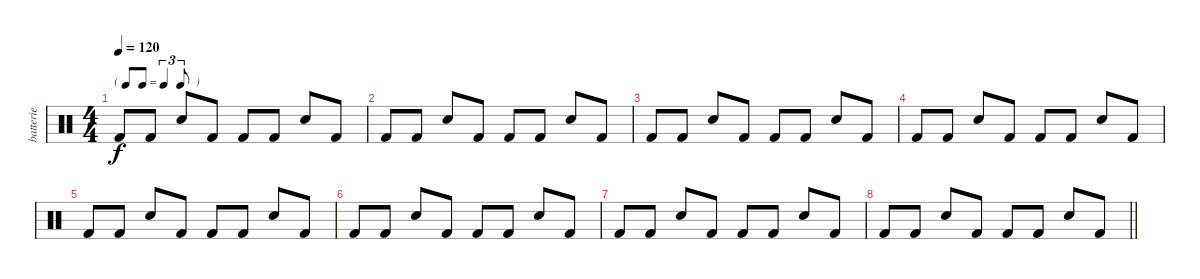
\track ("batterie" "batterie") {instrument percussion}
\staff {score}
\articulation defaults
\ts (4 4)
\tf triplet8th
\tempo 120
\clef neutral
\ks c "Kick (hit) 2".8{dy f} "Kick (hit) 2".8 "Snare (hit) 2".8 "Kick (hit) 2".8 "Kick (hit) 2".8 "Kick (hit) 2".8 "Snare (hit) 2".8 "Kick (hit) 2".8
|
"Kick (hit) 2".8 "Kick (hit) 2".8 "Snare (hit) 2".8 "Kick (hit) 2".8 "Kick (hit) 2".8 "Kick (hit) 2".8 "Snare (hit) 2".8 "Kick (hit) 2".8 |
"Kick (hit) 2".8 "Kick (hit) 2".8 "Snare (hit) 2".8 "Kick (hit) 2".8 "Kick (hit) 2".8 "Kick (hit) 2".8 "Snare (hit) 2".8 "Kick (hit) 2".8 |
"Kick (hit) 2".8 "Kick (hit) 2".8 "Snare (hit) 2".8 "Kick (hit) 2".8 "Kick (hit) 2".8 "Kick (hit) 2".8 "Snare (hit) 2".8 "Kick (hit) 2".8 |
"Kick (hit) 2".8 "Kick (hit) 2".8 "Snare (hit) 2".8 "Kick (hit) 2".8 "Kick (hit) 2".8 "Kick (hit) 2".8 "Snare (hit) 2".8 "Kick (hit) 2".8 |
"Kick (hit) 2".8 "Kick (hit) 2".8 "Snare (hit) 2".8 "Kick (hit) 2".8 "Kick (hit) 2".8 "Kick (hit) 2".8 "Snare (hit) 2".8 "Kick (hit) 2".8 |
"Kick (hit) 2".8 "Kick (hit) 2".8 "Snare (hit) 2".8 "Kick (hit) 2".8 "Kick (hit) 2".8 "Kick (hit) 2".8 "Snare (hit) 2".8 "Kick (hit) 2".8 |
\barLineRight lightlight "Kick (hit) 2".8 "Kick (hit) 2".8 "Snare (hit) 2".8 "Kick (hit) 2".8 "Kick (hit) 2".8 "Kick (hit) 2".8 "Snare (hit) 2".8 "Kick (hit) 2".8
